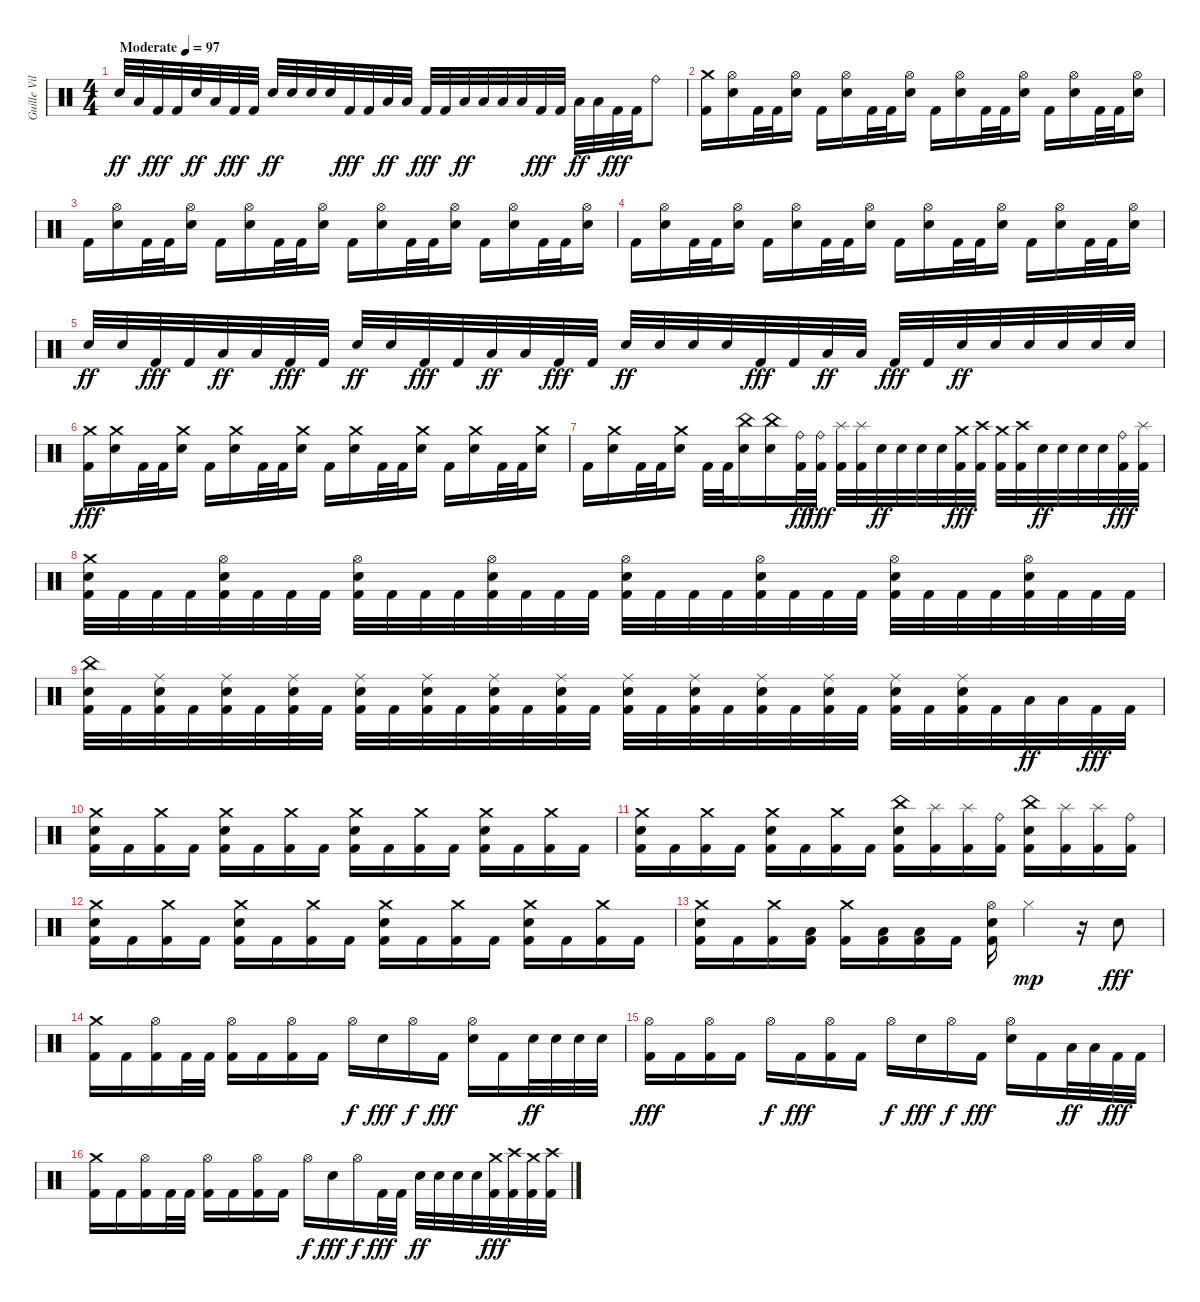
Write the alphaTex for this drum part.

\track ("Guille Vila" "Guille Vil") {instrument percussion}
\staff {score}
\articulation defaults
\ts (4 4)
\tempo (97 "Moderate")
\clef neutral
\ks c "Snare (hit) 2".32{dy ff} "Low Tom (hit)".32 "Kick (hit) 2".32{dy fff} "Kick (hit) 2".32 "Snare (hit) 2".32{dy ff} "Low Tom (hit)".32 "Kick (hit) 2".32{dy fff} "Kick (hit) 2".32 "Snare (hit) 2".32{dy ff} "Snare (hit) 2".32 "Snare (hit) 2".32 "Snare (hit) 2".32 "Kick (hit) 2".32{dy fff} "Kick (hit) 2".32 "Low Tom (hit)".32{dy ff} "Low Tom (hit)".32 "Kick (hit) 2".32{dy fff} "Kick (hit) 2".32 "Low Tom (hit)".32{dy ff} "Low Tom (hit)".32 "Low Tom (hit)".32 "Low Tom (hit)".32 "Kick (hit) 2".32{dy fff} "Kick (hit) 2".32 "Low Floor Tom (hit)".32{dy ff} "Low Floor Tom (hit)".32 "Kick (hit) 2".32{dy fff} "Kick (hit) 2".32 "Ride (bell)".8
|
("Crash medium (hit)" "Kick (hit) 2").16 ("Hi-Hat (open)" "Snare (hit) 2").16 "Kick (hit) 2".32 "Kick (hit) 2".32 ("Hi-Hat (open)" "Snare (hit) 2").16 "Kick (hit) 2".16 ("Hi-Hat (open)" "Snare (hit) 2").16 "Kick (hit) 2".32 "Kick (hit) 2".32 ("Hi-Hat (open)" "Snare (hit) 2").16 "Kick (hit) 2".16 ("Hi-Hat (open)" "Snare (hit) 2").16 "Kick (hit) 2".32 "Kick (hit) 2".32 ("Hi-Hat (open)" "Snare (hit) 2").16 "Kick (hit) 2".16 ("Hi-Hat (open)" "Snare (hit) 2").16 "Kick (hit) 2".32 "Kick (hit) 2".32 ("Hi-Hat (open)" "Snare (hit) 2").16 |
"Kick (hit) 2".16 ("Hi-Hat (open)" "Snare (hit) 2").16 "Kick (hit) 2".32 "Kick (hit) 2".32 ("Hi-Hat (open)" "Snare (hit) 2").16 "Kick (hit) 2".16 ("Hi-Hat (open)" "Snare (hit) 2").16 "Kick (hit) 2".32 "Kick (hit) 2".32 ("Hi-Hat (open)" "Snare (hit) 2").16 "Kick (hit) 2".16 ("Hi-Hat (open)" "Snare (hit) 2").16 "Kick (hit) 2".32 "Kick (hit) 2".32 ("Hi-Hat (open)" "Snare (hit) 2").16 "Kick (hit) 2".16 ("Hi-Hat (open)" "Snare (hit) 2").16 "Kick (hit) 2".32 "Kick (hit) 2".32 ("Hi-Hat (open)" "Snare (hit) 2").16 |
"Kick (hit) 2".16 ("Hi-Hat (open)" "Snare (hit) 2").16 "Kick (hit) 2".32 "Kick (hit) 2".32 ("Hi-Hat (open)" "Snare (hit) 2").16 "Kick (hit) 2".16 ("Hi-Hat (open)" "Snare (hit) 2").16 "Kick (hit) 2".32 "Kick (hit) 2".32 ("Hi-Hat (open)" "Snare (hit) 2").16 "Kick (hit) 2".16 ("Hi-Hat (open)" "Snare (hit) 2").16 "Kick (hit) 2".32 "Kick (hit) 2".32 ("Hi-Hat (open)" "Snare (hit) 2").16 "Kick (hit) 2".16 ("Hi-Hat (open)" "Snare (hit) 2").16 "Kick (hit) 2".32 "Kick (hit) 2".32 ("Hi-Hat (open)" "Snare (hit) 2").16 |
"Snare (hit) 2".32{dy ff} "Snare (hit) 2".32 "Kick (hit) 2".32{dy fff} "Kick (hit) 2".32 "Low Tom (hit)".32{dy ff} "Low Tom (hit)".32 "Kick (hit) 2".32{dy fff} "Kick (hit) 2".32 "Snare (hit) 2".32{dy ff} "Snare (hit) 2".32 "Kick (hit) 2".32{dy fff} "Kick (hit) 2".32 "Low Tom (hit)".32{dy ff} "Low Tom (hit)".32 "Kick (hit) 2".32{dy fff} "Kick (hit) 2".32 "Snare (hit) 2".32{dy ff} "Snare (hit) 2".32 "Snare (hit) 2".32 "Snare (hit) 2".32 "Kick (hit) 2".32{dy fff} "Kick (hit) 2".32 "Low Tom (hit)".32{dy ff} "Low Tom (hit)".32 "Kick (hit) 2".32{dy fff} "Kick (hit) 2".32 "Snare (hit) 2".32{dy ff} "Snare (hit) 2".32 "Snare (hit) 2".32 "Snare (hit) 2".32 "Snare (hit) 2".32 "Snare (hit) 2".32 |
("Crash medium (hit)" "Kick (hit) 2").16{dy fff} ("Crash medium (hit)" "Snare (hit) 2").16 "Kick (hit) 2".32 "Kick (hit) 2".32 ("Crash medium (hit)" "Snare (hit) 2").16 "Kick (hit) 2".16 ("Crash medium (hit)" "Snare (hit) 2").16 "Kick (hit) 2".32 "Kick (hit) 2".32 ("Crash medium (hit)" "Snare (hit) 2").16 "Kick (hit) 2".16 ("Crash medium (hit)" "Snare (hit) 2").16 "Kick (hit) 2".32 "Kick (hit) 2".32 ("Crash medium (hit)" "Snare (hit) 2").16 "Kick (hit) 2".16 ("Crash medium (hit)" "Snare (hit) 2").16 "Kick (hit) 2".32 "Kick (hit) 2".32 ("Crash medium (hit)" "Snare (hit) 2").16 |
"Kick (hit) 2".16 ("Crash medium (hit)" "Snare (hit) 2").16 "Kick (hit) 2".32 "Kick (hit) 2".32 ("Crash medium (hit)" "Snare (hit) 2").16 "Kick (hit) 2".32 "Kick (hit) 2".32 ("China (hit)" "Snare (hit) 2").16 ("China (hit)" "Snare (hit) 2").16 ("Ride (bell)" "Kick (hit) 2").32{dy ff} ("Ride (bell)" "Kick (hit) 2").32{dy fff} ("Splash (hit)" "Kick (hit) 2").32 ("Splash (hit)" "Kick (hit) 2").32 "Snare (hit) 2".32{dy ff} "Snare (hit) 2".32 "Snare (hit) 2".32 "Snare (hit) 2".32 ("Crash medium (hit)" "Kick (hit) 2").32{dy fff} ("Crash high (hit)" "Kick (hit) 2").32 ("Crash medium (hit)" "Kick (hit) 2").32 ("Crash high (hit)" "Kick (hit) 2").32 "Snare (hit) 2".32{dy ff} "Snare (hit) 2".32 "Snare (hit) 2".32 "Snare (hit) 2".32 ("Ride (bell)" "Kick (hit) 2").32{dy fff} ("Splash (hit)" "Kick (hit) 2").32 |
("Crash medium (hit)" "Snare (hit) 2" "Kick (hit) 2").32 "Kick (hit) 2".32 "Kick (hit) 2".32 "Kick (hit) 2".32 ("Hi-Hat (open)" "Snare (hit) 2" "Kick (hit) 2").32 "Kick (hit) 2".32 "Kick (hit) 2".32 "Kick (hit) 2".32 ("Hi-Hat (open)" "Snare (hit) 2" "Kick (hit) 2").32 "Kick (hit) 2".32 "Kick (hit) 2".32 "Kick (hit) 2".32 ("Hi-Hat (open)" "Snare (hit) 2" "Kick (hit) 2").32 "Kick (hit) 2".32 "Kick (hit) 2".32 "Kick (hit) 2".32 ("Hi-Hat (open)" "Snare (hit) 2" "Kick (hit) 2").32 "Kick (hit) 2".32 "Kick (hit) 2".32 "Kick (hit) 2".32 ("Hi-Hat (open)" "Snare (hit) 2" "Kick (hit) 2").32 "Kick (hit) 2".32 "Kick (hit) 2".32 "Kick (hit) 2".32 ("Hi-Hat (open)" "Snare (hit) 2" "Kick (hit) 2").32 "Kick (hit) 2".32 "Kick (hit) 2".32 "Kick (hit) 2".32 ("Hi-Hat (open)" "Snare (hit) 2" "Kick (hit) 2").32 "Kick (hit) 2".32 "Kick (hit) 2".32 "Kick (hit) 2".32 |
("China (hit)" "Snare (hit) 2" "Kick (hit) 2").32 "Kick (hit) 2".32 ("Ride (middle)" "Snare (hit) 2" "Kick (hit) 2").32 "Kick (hit) 2".32 ("Ride (middle)" "Snare (hit) 2" "Kick (hit) 2").32 "Kick (hit) 2".32 ("Ride (middle)" "Snare (hit) 2" "Kick (hit) 2").32 "Kick (hit) 2".32 ("Ride (middle)" "Snare (hit) 2" "Kick (hit) 2").32 "Kick (hit) 2".32 ("Ride (middle)" "Snare (hit) 2" "Kick (hit) 2").32 "Kick (hit) 2".32 ("Ride (middle)" "Snare (hit) 2" "Kick (hit) 2").32 "Kick (hit) 2".32 ("Ride (middle)" "Snare (hit) 2" "Kick (hit) 2").32 "Kick (hit) 2".32 ("Ride (middle)" "Snare (hit) 2" "Kick (hit) 2").32 "Kick (hit) 2".32 ("Ride (middle)" "Snare (hit) 2" "Kick (hit) 2").32 "Kick (hit) 2".32 ("Ride (middle)" "Snare (hit) 2" "Kick (hit) 2").32 "Kick (hit) 2".32 ("Ride (middle)" "Snare (hit) 2" "Kick (hit) 2").32 "Kick (hit) 2".32 ("Ride (middle)" "Snare (hit) 2" "Kick (hit) 2").32 "Kick (hit) 2".32 ("Ride (middle)" "Snare (hit) 2" "Kick (hit) 2").32 "Kick (hit) 2".32 "Low Floor Tom (hit)".32{dy ff} "Low Tom (hit)".32 "Kick (hit) 2".32{dy fff} "Kick (hit) 2".32 |
("Crash medium (hit)" "Snare (hit) 2" "Kick (hit) 2").16 "Kick (hit) 2".16 ("Crash medium (hit)" "Kick (hit) 2").16 "Kick (hit) 2".16 ("Crash medium (hit)" "Snare (hit) 2" "Kick (hit) 2").16 "Kick (hit) 2".16 ("Crash medium (hit)" "Kick (hit) 2").16 "Kick (hit) 2".16 ("Crash medium (hit)" "Snare (hit) 2" "Kick (hit) 2").16 "Kick (hit) 2".16 ("Crash medium (hit)" "Kick (hit) 2").16 "Kick (hit) 2".16 ("Crash medium (hit)" "Snare (hit) 2" "Kick (hit) 2").16 "Kick (hit) 2".16 ("Crash medium (hit)" "Kick (hit) 2").16 "Kick (hit) 2".16 |
("Crash medium (hit)" "Snare (hit) 2" "Kick (hit) 2").16 "Kick (hit) 2".16 ("Crash medium (hit)" "Kick (hit) 2").16 "Kick (hit) 2".16 ("Crash medium (hit)" "Snare (hit) 2" "Kick (hit) 2").16 "Kick (hit) 2".16 ("Crash medium (hit)" "Kick (hit) 2").16 "Kick (hit) 2".16 ("China (hit)" "Snare (hit) 2" "Kick (hit) 2").16 ("Splash (hit)" "Kick (hit) 2").16 ("Splash (hit)" "Kick (hit) 2").16 ("Ride (bell)" "Kick (hit) 2").16 ("China (hit)" "Snare (hit) 2" "Kick (hit) 2").16 ("Splash (hit)" "Kick (hit) 2").16 ("Splash (hit)" "Kick (hit) 2").16 ("Ride (bell)" "Kick (hit) 2").16 |
("Crash medium (hit)" "Snare (hit) 2" "Kick (hit) 2").16 "Kick (hit) 2".16 ("Crash medium (hit)" "Kick (hit) 2").16 "Kick (hit) 2".16 ("Crash medium (hit)" "Snare (hit) 2" "Kick (hit) 2").16 "Kick (hit) 2".16 ("Crash medium (hit)" "Kick (hit) 2").16 "Kick (hit) 2".16 ("Crash medium (hit)" "Snare (hit) 2" "Kick (hit) 2").16 "Kick (hit) 2".16 ("Crash medium (hit)" "Kick (hit) 2").16 "Kick (hit) 2".16 ("Crash medium (hit)" "Snare (hit) 2" "Kick (hit) 2").16 "Kick (hit) 2".16 ("Crash medium (hit)" "Kick (hit) 2").16 "Kick (hit) 2".16 |
("Crash medium (hit)" "Snare (hit) 2" "Kick (hit) 2").16 "Kick (hit) 2".16 ("Crash medium (hit)" "Kick (hit) 2").16 ("Low Tom (hit)" "Kick (hit) 2").16 ("Crash medium (hit)" "Kick (hit) 2").16 ("Low Tom (hit)" "Kick (hit) 2").16 ("Low Floor Tom (hit)" "Kick (hit) 2").16 "Kick (hit) 2".16 ("Hi-Hat (open)" "Snare (hit) 2" "Kick (hit) 2").16 "Hi-Hat (closed)".4{dy mp} r.16 "Snare (hit) 2".8{dy fff} |
("Crash medium (hit)" "Kick (hit) 2").16 "Kick (hit) 2".16 ("Hi-Hat (open)" "Kick (hit) 2").16 "Kick (hit) 2".32 "Kick (hit) 2".32 ("Hi-Hat (open)" "Kick (hit) 2").16 "Kick (hit) 2".16 ("Hi-Hat (open)" "Kick (hit) 2").16 "Kick (hit) 2".16 "Hi-Hat (open)".16{dy f} "Snare (hit) 2".16{dy fff} "Hi-Hat (open)".16{dy f} "Kick (hit) 2".16{dy fff} ("Hi-Hat (open)" "Snare (hit) 2").16 "Kick (hit) 2".16 "Snare (hit) 2".32{dy ff} "Snare (hit) 2".32 "Snare (hit) 2".32 "Snare (hit) 2".32 |
("Hi-Hat (open)" "Kick (hit) 2").16{dy fff} "Kick (hit) 2".16 ("Hi-Hat (open)" "Kick (hit) 2").16 "Kick (hit) 2".16 "Hi-Hat (open)".16{dy f} "Kick (hit) 2".16{dy fff} ("Hi-Hat (open)" "Kick (hit) 2").16 "Kick (hit) 2".16 "Hi-Hat (open)".16{dy f} "Snare (hit) 2".16{dy fff} "Hi-Hat (open)".16{dy f} "Kick (hit) 2".16{dy fff} ("Hi-Hat (open)" "Snare (hit) 2").16 "Kick (hit) 2".16 "Low Tom (hit)".32{dy ff} "Low Tom (hit)".32 "Kick (hit) 2".32{dy fff} "Kick (hit) 2".32 |
("Crash medium (hit)" "Kick (hit) 2").16 "Kick (hit) 2".16 ("Hi-Hat (open)" "Kick (hit) 2").16 "Kick (hit) 2".32 "Kick (hit) 2".32 ("Hi-Hat (open)" "Kick (hit) 2").16 "Kick (hit) 2".16 ("Hi-Hat (open)" "Kick (hit) 2").16 "Kick (hit) 2".16 "Hi-Hat (open)".16{dy f} "Snare (hit) 2".16{dy fff} "Hi-Hat (open)".16{dy f} "Kick (hit) 2".32{dy fff} "Kick (hit) 2".32 "Snare (hit) 2".32{dy ff} "Snare (hit) 2".32 "Snare (hit) 2".32 "Snare (hit) 2".32 ("Crash medium (hit)" "Kick (hit) 2").32{dy fff} ("Crash high (hit)" "Kick (hit) 2").32 ("Crash medium (hit)" "Kick (hit) 2").32 ("Crash high (hit)" "Kick (hit) 2").32
